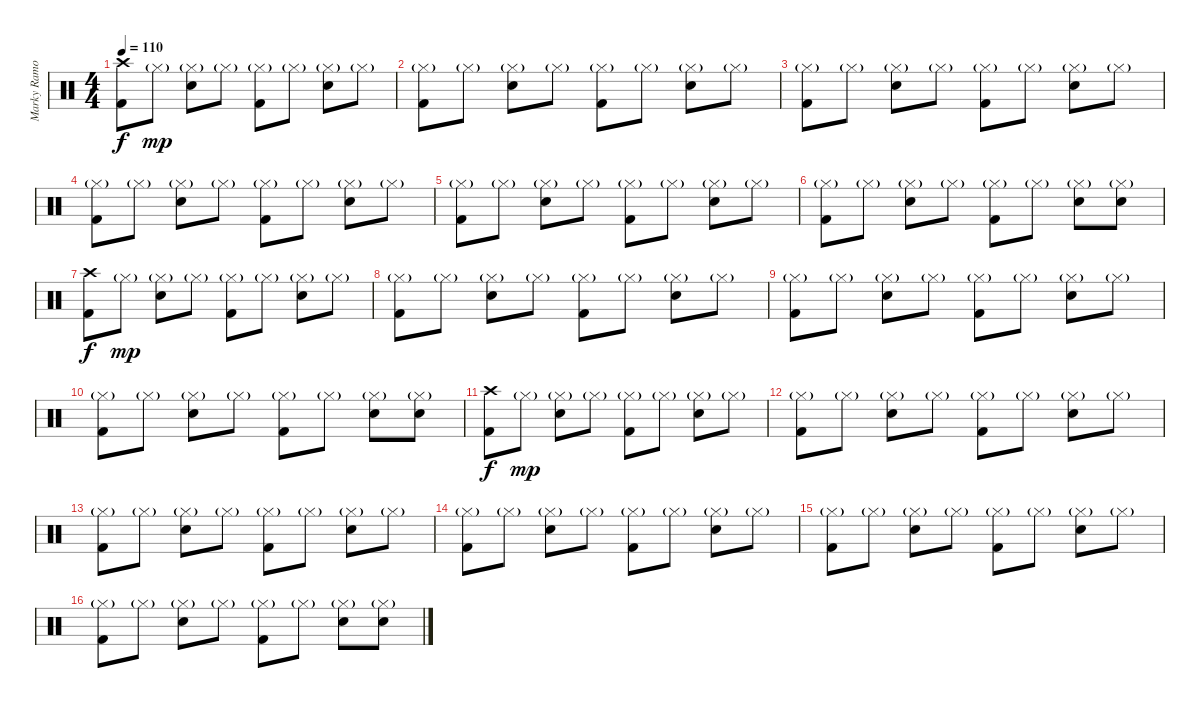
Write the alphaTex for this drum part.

\track ("Marky Ramone-Drums" "Marky Ramo") {instrument percussion}
\staff
\articulation defaults
\ts (4 4)
\tempo 110
\clef neutral
\ks c
("Crash high (hit)" "Kick (hit) 2").8{dy f} "Hi-Hat (closed)"{g}.8{dy mp} ("Hi-Hat (closed)"{g} "Snare (hit) 2").8 "Hi-Hat (closed)"{g}.8 ("Hi-Hat (closed)"{g} "Kick (hit) 2").8 "Hi-Hat (closed)"{g}.8 ("Hi-Hat (closed)"{g} "Snare (hit) 2").8 "Hi-Hat (closed)"{g}.8 |
("Hi-Hat (closed)"{g} "Kick (hit) 2").8 "Hi-Hat (closed)"{g}.8 ("Hi-Hat (closed)"{g} "Snare (hit) 2").8 "Hi-Hat (closed)"{g}.8 ("Hi-Hat (closed)"{g} "Kick (hit) 2").8 "Hi-Hat (closed)"{g}.8 ("Hi-Hat (closed)"{g} "Snare (hit) 2").8 "Hi-Hat (closed)"{g}.8 |
("Hi-Hat (closed)"{g} "Kick (hit) 2").8 "Hi-Hat (closed)"{g}.8 ("Hi-Hat (closed)"{g} "Snare (hit) 2").8 "Hi-Hat (closed)"{g}.8 ("Hi-Hat (closed)"{g} "Kick (hit) 2").8 "Hi-Hat (closed)"{g}.8 ("Hi-Hat (closed)"{g} "Snare (hit) 2").8 "Hi-Hat (closed)"{g}.8 |
("Hi-Hat (closed)"{g} "Kick (hit) 2").8 "Hi-Hat (closed)"{g}.8 ("Hi-Hat (closed)"{g} "Snare (hit) 2").8 "Hi-Hat (closed)"{g}.8 ("Hi-Hat (closed)"{g} "Kick (hit) 2").8 "Hi-Hat (closed)"{g}.8 ("Hi-Hat (closed)"{g} "Snare (hit) 2").8 "Hi-Hat (closed)"{g}.8 |
("Hi-Hat (closed)"{g} "Kick (hit) 2").8 "Hi-Hat (closed)"{g}.8 ("Hi-Hat (closed)"{g} "Snare (hit) 2").8 "Hi-Hat (closed)"{g}.8 ("Hi-Hat (closed)"{g} "Kick (hit) 2").8 "Hi-Hat (closed)"{g}.8 ("Hi-Hat (closed)"{g} "Snare (hit) 2").8 "Hi-Hat (closed)"{g}.8 |
("Hi-Hat (closed)"{g} "Kick (hit) 2").8 "Hi-Hat (closed)"{g}.8 ("Hi-Hat (closed)"{g} "Snare (hit) 2").8 "Hi-Hat (closed)"{g}.8 ("Hi-Hat (closed)"{g} "Kick (hit) 2").8 "Hi-Hat (closed)"{g}.8 ("Hi-Hat (closed)"{g} "Snare (hit) 2").8 ("Hi-Hat (closed)"{g} "Snare (hit) 2").8 |
("Crash high (hit)" "Kick (hit) 2").8{dy f} "Hi-Hat (closed)"{g}.8{dy mp} ("Hi-Hat (closed)"{g} "Snare (hit) 2").8 "Hi-Hat (closed)"{g}.8 ("Hi-Hat (closed)"{g} "Kick (hit) 2").8 "Hi-Hat (closed)"{g}.8 ("Hi-Hat (closed)"{g} "Snare (hit) 2").8 "Hi-Hat (closed)"{g}.8 |
("Hi-Hat (closed)"{g} "Kick (hit) 2").8 "Hi-Hat (closed)"{g}.8 ("Hi-Hat (closed)"{g} "Snare (hit) 2").8 "Hi-Hat (closed)"{g}.8 ("Hi-Hat (closed)"{g} "Kick (hit) 2").8 "Hi-Hat (closed)"{g}.8 ("Hi-Hat (closed)"{g} "Snare (hit) 2").8 "Hi-Hat (closed)"{g}.8 |
("Hi-Hat (closed)"{g} "Kick (hit) 2").8 "Hi-Hat (closed)"{g}.8 ("Hi-Hat (closed)"{g} "Snare (hit) 2").8 "Hi-Hat (closed)"{g}.8 ("Hi-Hat (closed)"{g} "Kick (hit) 2").8 "Hi-Hat (closed)"{g}.8 ("Hi-Hat (closed)"{g} "Snare (hit) 2").8 "Hi-Hat (closed)"{g}.8 |
("Hi-Hat (closed)"{g} "Kick (hit) 2").8 "Hi-Hat (closed)"{g}.8 ("Hi-Hat (closed)"{g} "Snare (hit) 2").8 "Hi-Hat (closed)"{g}.8 ("Hi-Hat (closed)"{g} "Kick (hit) 2").8 "Hi-Hat (closed)"{g}.8 ("Hi-Hat (closed)"{g} "Snare (hit) 2").8 ("Hi-Hat (closed)"{g} "Snare (hit) 2").8 |
("Crash high (hit)" "Kick (hit) 2").8{dy f} "Hi-Hat (closed)"{g}.8{dy mp} ("Hi-Hat (closed)"{g} "Snare (hit) 2").8 "Hi-Hat (closed)"{g}.8 ("Hi-Hat (closed)"{g} "Kick (hit) 2").8 "Hi-Hat (closed)"{g}.8 ("Hi-Hat (closed)"{g} "Snare (hit) 2").8 "Hi-Hat (closed)"{g}.8 |
("Hi-Hat (closed)"{g} "Kick (hit) 2").8 "Hi-Hat (closed)"{g}.8 ("Hi-Hat (closed)"{g} "Snare (hit) 2").8 "Hi-Hat (closed)"{g}.8 ("Hi-Hat (closed)"{g} "Kick (hit) 2").8 "Hi-Hat (closed)"{g}.8 ("Hi-Hat (closed)"{g} "Snare (hit) 2").8 "Hi-Hat (closed)"{g}.8 |
("Hi-Hat (closed)"{g} "Kick (hit) 2").8 "Hi-Hat (closed)"{g}.8 ("Hi-Hat (closed)"{g} "Snare (hit) 2").8 "Hi-Hat (closed)"{g}.8 ("Hi-Hat (closed)"{g} "Kick (hit) 2").8 "Hi-Hat (closed)"{g}.8 ("Hi-Hat (closed)"{g} "Snare (hit) 2").8 "Hi-Hat (closed)"{g}.8 |
("Hi-Hat (closed)"{g} "Kick (hit) 2").8 "Hi-Hat (closed)"{g}.8 ("Hi-Hat (closed)"{g} "Snare (hit) 2").8 "Hi-Hat (closed)"{g}.8 ("Hi-Hat (closed)"{g} "Kick (hit) 2").8 "Hi-Hat (closed)"{g}.8 ("Hi-Hat (closed)"{g} "Snare (hit) 2").8 "Hi-Hat (closed)"{g}.8 |
("Hi-Hat (closed)"{g} "Kick (hit) 2").8 "Hi-Hat (closed)"{g}.8 ("Hi-Hat (closed)"{g} "Snare (hit) 2").8 "Hi-Hat (closed)"{g}.8 ("Hi-Hat (closed)"{g} "Kick (hit) 2").8 "Hi-Hat (closed)"{g}.8 ("Hi-Hat (closed)"{g} "Snare (hit) 2").8 "Hi-Hat (closed)"{g}.8 |
("Hi-Hat (closed)"{g} "Kick (hit) 2").8 "Hi-Hat (closed)"{g}.8 ("Hi-Hat (closed)"{g} "Snare (hit) 2").8 "Hi-Hat (closed)"{g}.8 ("Hi-Hat (closed)"{g} "Kick (hit) 2").8 "Hi-Hat (closed)"{g}.8 ("Hi-Hat (closed)"{g} "Snare (hit) 2").8 ("Hi-Hat (closed)"{g} "Snare (hit) 2").8
